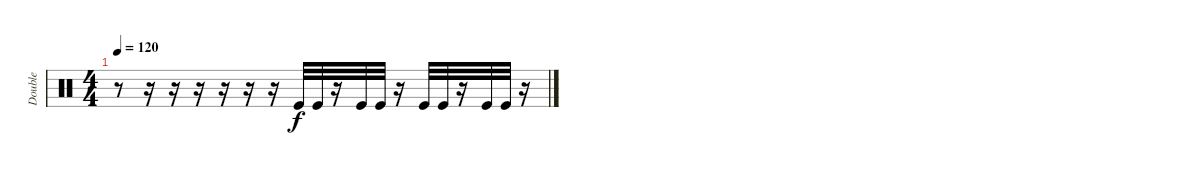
\track ("Double" "Double") {instrument percussion}
\staff {score}
\articulation defaults
\ts (4 4)
\tempo 120
\clef neutral
\ks c
r.8{dy f} r.16 r.16 r.16 r.16 r.16 r.16 "Kick (hit)".32 "Kick (hit)".32 r.16 "Kick (hit)".32 "Kick (hit)".32 r.16 "Kick (hit)".32 "Kick (hit)".32 r.16 "Kick (hit)".32 "Kick (hit)".32 r.16
